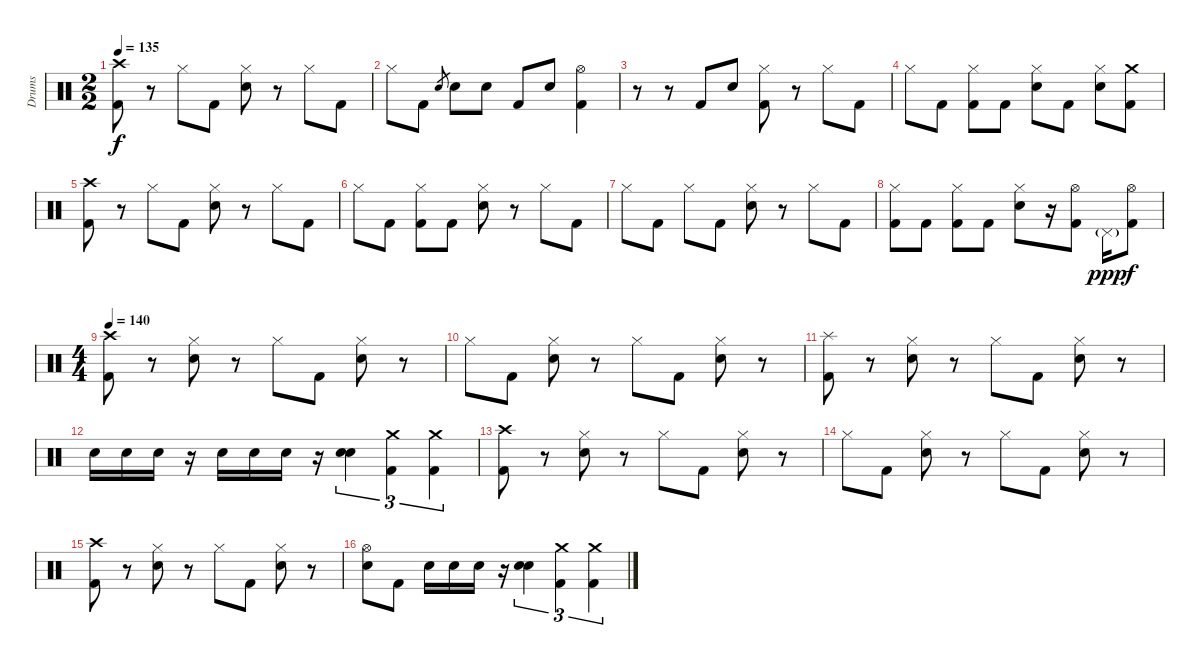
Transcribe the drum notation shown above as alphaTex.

\track ("Drums" "Drums") {instrument percussion}
\staff {score}
\articulation defaults
\ts (2 2)
\tempo 135
\clef neutral
\ks c
("Crash high (hit)" "Kick (hit) 2").8{dy f} r.8 "Hi-Hat (closed)".8 "Kick (hit) 2".8 ("Hi-Hat (closed)" "Snare (hit) 2").8 r.8 "Hi-Hat (closed)".8 "Kick (hit) 2".8 |
"Hi-Hat (closed)".8 "Kick (hit) 2".8 "Snare (hit) 2".8{gr} "Snare (hit) 2".8 "Snare (hit) 2".8 "Kick (hit) 2".8 "Snare (hit) 2".8 ("Hi-Hat (open)" "Kick (hit) 2").4 |
r.8 r.8 "Kick (hit) 2".8 "Snare (hit) 2".8 ("Hi-Hat (closed)" "Kick (hit) 2").8 r.8 "Hi-Hat (closed)".8 "Kick (hit) 2".8 |
"Hi-Hat (closed)".8 "Kick (hit) 2".8 ("Hi-Hat (closed)" "Kick (hit) 2").8 "Kick (hit) 2".8 ("Hi-Hat (closed)" "Snare (hit) 2").8 "Kick (hit) 2".8 ("Hi-Hat (closed)" "Snare (hit) 2").8 ("Crash medium (hit)" "Kick (hit) 2").8 |
("Crash high (hit)" "Kick (hit) 2").8 r.8 "Hi-Hat (closed)".8 "Kick (hit) 2".8 ("Hi-Hat (closed)" "Snare (hit) 2").8 r.8 "Hi-Hat (closed)".8 "Kick (hit) 2".8 |
"Hi-Hat (closed)".8 "Kick (hit) 2".8 ("Hi-Hat (closed)" "Kick (hit) 2").8 "Kick (hit) 2".8 ("Hi-Hat (closed)" "Snare (hit) 2").8 r.8 "Hi-Hat (closed)".8 "Kick (hit) 2".8 |
"Hi-Hat (closed)".8 "Kick (hit) 2".8 "Hi-Hat (closed)".8 "Kick (hit) 2".8 ("Hi-Hat (closed)" "Snare (hit) 2").8 r.8 "Hi-Hat (closed)".8 "Kick (hit) 2".8 |
("Hi-Hat (closed)" "Kick (hit) 2").8 "Kick (hit) 2".8 ("Hi-Hat (closed)" "Kick (hit) 2").8 "Kick (hit) 2".8 ("Hi-Hat (closed)" "Snare (hit) 2").8 r.16 ("Hi-Hat (open)" "Kick (hit) 2").8 "Pedal Hi-Hat (hit)"{g}.16{dy ppp} ("Hi-Hat (open)" "Kick (hit) 2").8{dy f} |
\ts (4 4)
\tempo 140
("Crash high (hit)" "Kick (hit) 2").8 r.8 ("Hi-Hat (closed)" "Snare (hit) 2").8 r.8 "Hi-Hat (closed)".8 "Kick (hit) 2".8 ("Hi-Hat (closed)" "Snare (hit) 2").8 r.8 |
"Hi-Hat (closed)".8 "Kick (hit) 2".8 ("Hi-Hat (closed)" "Snare (hit) 2").8 r.8 "Hi-Hat (closed)".8 "Kick (hit) 2".8 ("Hi-Hat (closed)" "Snare (hit) 2").8 r.8 |
("Splash (hit)" "Kick (hit) 2").8 r.8 ("Hi-Hat (closed)" "Snare (hit) 2").8 r.8 "Hi-Hat (closed)".8 "Kick (hit) 2".8 ("Hi-Hat (closed)" "Snare (hit) 2").8 r.8 |
"Snare (hit) 2".16 "Snare (hit) 2".16 "Snare (hit) 2".16 r.16 "Snare (hit) 2".16 "Snare (hit) 2".16 "Snare (hit) 2".16 r.16 ("Snare (hit) 2" "Snare (hit) 2").4{tu (3 2) bd 480} ("Crash medium (hit)" "Kick (hit) 2").4{tu (3 2)} ("Crash medium (hit)" "Kick (hit) 2").4{tu (3 2)} |
("Crash high (hit)" "Kick (hit) 2").8 r.8 ("Hi-Hat (closed)" "Snare (hit) 2").8 r.8 "Hi-Hat (closed)".8 "Kick (hit) 2".8 ("Hi-Hat (closed)" "Snare (hit) 2").8 r.8 |
"Hi-Hat (closed)".8 "Kick (hit) 2".8 ("Hi-Hat (closed)" "Snare (hit) 2").8 r.8 "Hi-Hat (closed)".8 "Kick (hit) 2".8 ("Hi-Hat (closed)" "Snare (hit) 2").8 r.8 |
("Crash high (hit)" "Kick (hit) 2").8 r.8 ("Hi-Hat (closed)" "Snare (hit) 2").8 r.8 "Hi-Hat (closed)".8 "Kick (hit) 2".8 ("Hi-Hat (closed)" "Snare (hit) 2").8 r.8 |
("Hi-Hat (open)" "Snare (hit) 2").8 "Kick (hit) 2".8 "Snare (hit) 2".16 "Snare (hit) 2".16 "Snare (hit) 2".16 r.16 ("Snare (hit) 2" "Snare (hit) 2").4{tu (3 2) bd 480} ("Crash medium (hit)" "Kick (hit) 2").4{tu (3 2)} ("Crash medium (hit)" "Kick (hit) 2").4{tu (3 2)}
